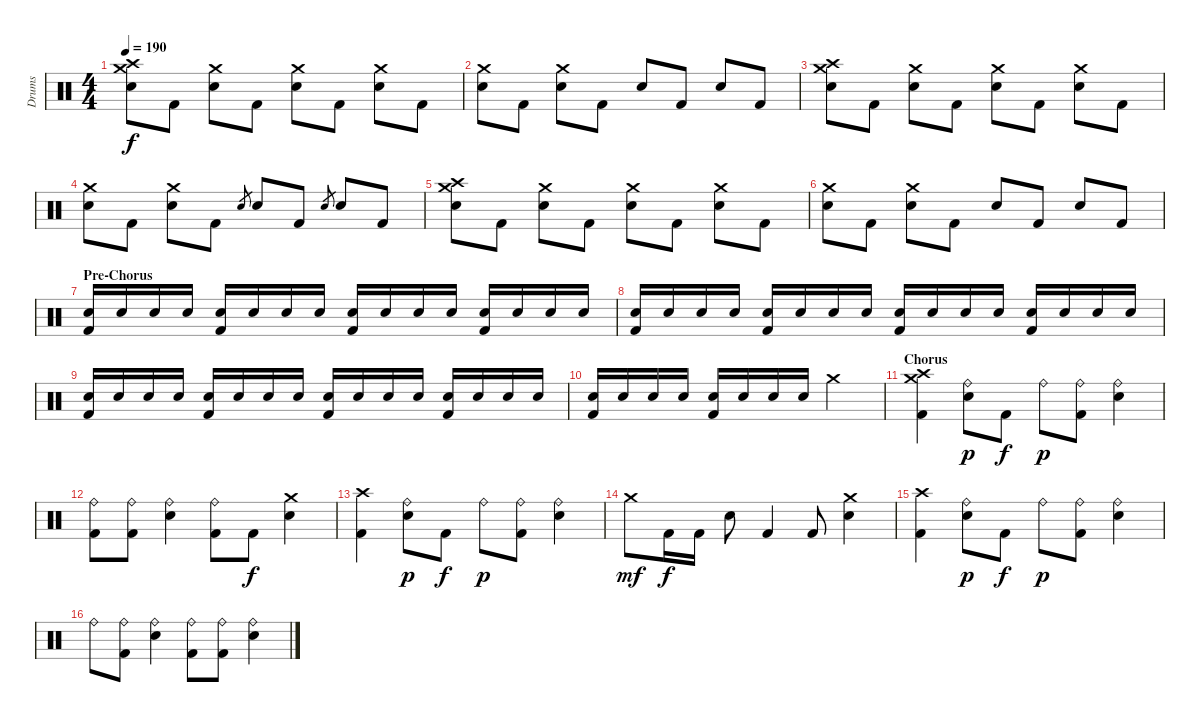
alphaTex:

\track ("Drums" "Drums") {instrument percussion}
\staff {score}
\articulation defaults
\ts (4 4)
\tempo 190
\clef neutral
\ks c
("Crash medium (hit)" "Crash high (hit)" "Electric Snare (hit)").8{dy f} "Kick (hit) 2".8 ("Crash medium (hit)" "Electric Snare (hit)").8 "Kick (hit) 2".8 ("Crash medium (hit)" "Electric Snare (hit)").8 "Kick (hit) 2".8 ("Crash medium (hit)" "Electric Snare (hit)").8 "Kick (hit) 2".8 |
("Crash medium (hit)" "Electric Snare (hit)").8 "Kick (hit) 2".8 ("Crash medium (hit)" "Electric Snare (hit)").8 "Kick (hit) 2".8 "Electric Snare (hit)".8 "Kick (hit) 2".8 "Electric Snare (hit)".8 "Kick (hit) 2".8 |
("Crash medium (hit)" "Crash high (hit)" "Electric Snare (hit)").8 "Kick (hit) 2".8 ("Crash medium (hit)" "Electric Snare (hit)").8 "Kick (hit) 2".8 ("Crash medium (hit)" "Electric Snare (hit)").8 "Kick (hit) 2".8 ("Crash medium (hit)" "Electric Snare (hit)").8 "Kick (hit) 2".8 |
("Crash medium (hit)" "Electric Snare (hit)").8 "Kick (hit) 2".8 ("Crash medium (hit)" "Electric Snare (hit)").8 "Kick (hit) 2".8 "Electric Snare (hit)".8{gr} "Electric Snare (hit)".8 "Kick (hit) 2".8 "Electric Snare (hit)".8{gr} "Electric Snare (hit)".8 "Kick (hit) 2".8 |
("Crash medium (hit)" "Crash high (hit)" "Electric Snare (hit)").8 "Kick (hit) 2".8 ("Crash medium (hit)" "Electric Snare (hit)").8 "Kick (hit) 2".8 ("Crash medium (hit)" "Electric Snare (hit)").8 "Kick (hit) 2".8 ("Crash medium (hit)" "Electric Snare (hit)").8 "Kick (hit) 2".8 |
("Crash medium (hit)" "Electric Snare (hit)").8 "Kick (hit) 2".8 ("Crash medium (hit)" "Electric Snare (hit)").8 "Kick (hit) 2".8 "Electric Snare (hit)".8 "Kick (hit) 2".8 "Electric Snare (hit)".8 "Kick (hit) 2".8 |
\section ("" "Pre-Chorus")
("Electric Snare (hit)" "Kick (hit) 2").16 "Electric Snare (hit)".16 "Electric Snare (hit)".16 "Electric Snare (hit)".16 ("Electric Snare (hit)" "Kick (hit) 2").16 "Electric Snare (hit)".16 "Electric Snare (hit)".16 "Electric Snare (hit)".16 ("Electric Snare (hit)" "Kick (hit) 2").16 "Electric Snare (hit)".16 "Electric Snare (hit)".16 "Electric Snare (hit)".16 ("Electric Snare (hit)" "Kick (hit) 2").16 "Electric Snare (hit)".16 "Electric Snare (hit)".16 "Electric Snare (hit)".16 |
("Electric Snare (hit)" "Kick (hit) 2").16 "Electric Snare (hit)".16 "Electric Snare (hit)".16 "Electric Snare (hit)".16 ("Electric Snare (hit)" "Kick (hit) 2").16 "Electric Snare (hit)".16 "Electric Snare (hit)".16 "Electric Snare (hit)".16 ("Electric Snare (hit)" "Kick (hit) 2").16 "Electric Snare (hit)".16 "Electric Snare (hit)".16 "Electric Snare (hit)".16 ("Electric Snare (hit)" "Kick (hit) 2").16 "Electric Snare (hit)".16 "Electric Snare (hit)".16 "Electric Snare (hit)".16 |
("Electric Snare (hit)" "Kick (hit) 2").16 "Electric Snare (hit)".16 "Electric Snare (hit)".16 "Electric Snare (hit)".16 ("Electric Snare (hit)" "Kick (hit) 2").16 "Electric Snare (hit)".16 "Electric Snare (hit)".16 "Electric Snare (hit)".16 ("Electric Snare (hit)" "Kick (hit) 2").16 "Electric Snare (hit)".16 "Electric Snare (hit)".16 "Electric Snare (hit)".16 ("Electric Snare (hit)" "Kick (hit) 2").16 "Electric Snare (hit)".16 "Electric Snare (hit)".16 "Electric Snare (hit)".16 |
("Electric Snare (hit)" "Kick (hit) 2").16 "Electric Snare (hit)".16 "Electric Snare (hit)".16 "Electric Snare (hit)".16 ("Electric Snare (hit)" "Kick (hit) 2").16 "Electric Snare (hit)".16 "Electric Snare (hit)".16 "Electric Snare (hit)".16 "Crash medium (hit)".2 |
\section ("" "Chorus")
("Crash medium (hit)" "Crash high (hit)" "Kick (hit) 2").4 ("Ride (bell)" "Electric Snare (hit)").8{dy p} "Kick (hit) 2".8{dy f} "Ride (bell)".8{dy p} ("Ride (bell)" "Kick (hit) 2").8 ("Ride (bell)" "Electric Snare (hit)").4 |
("Ride (bell)" "Kick (hit) 2").8 ("Ride (bell)" "Kick (hit) 2").8 ("Ride (bell)" "Electric Snare (hit)").4 ("Ride (bell)" "Kick (hit) 2").8 "Kick (hit) 2".8{dy f} ("Crash medium (hit)" "Electric Snare (hit)").4 |
("Crash high (hit)" "Kick (hit) 2").4 ("Ride (bell)" "Electric Snare (hit)").8{dy p} "Kick (hit) 2".8{dy f} "Ride (bell)".8{dy p} ("Ride (bell)" "Kick (hit) 2").8 ("Ride (bell)" "Electric Snare (hit)").4 |
"Crash medium (hit)".8{dy mf} "Kick (hit) 2".16{dy f} "Kick (hit) 2".16 "Electric Snare (hit)".8 "Kick (hit) 2".4 "Kick (hit) 2".8 ("Crash medium (hit)" "Electric Snare (hit)").4 |
("Crash high (hit)" "Kick (hit) 2").4 ("Ride (bell)" "Electric Snare (hit)").8{dy p} "Kick (hit) 2".8{dy f} "Ride (bell)".8{dy p} ("Ride (bell)" "Kick (hit) 2").8 ("Ride (bell)" "Electric Snare (hit)").4 |
"Ride (bell)".8 ("Ride (bell)" "Kick (hit) 2").8 ("Ride (bell)" "Electric Snare (hit)").4 ("Ride (bell)" "Kick (hit) 2").8 ("Ride (bell)" "Kick (hit) 2").8 ("Ride (bell)" "Electric Snare (hit)").4
